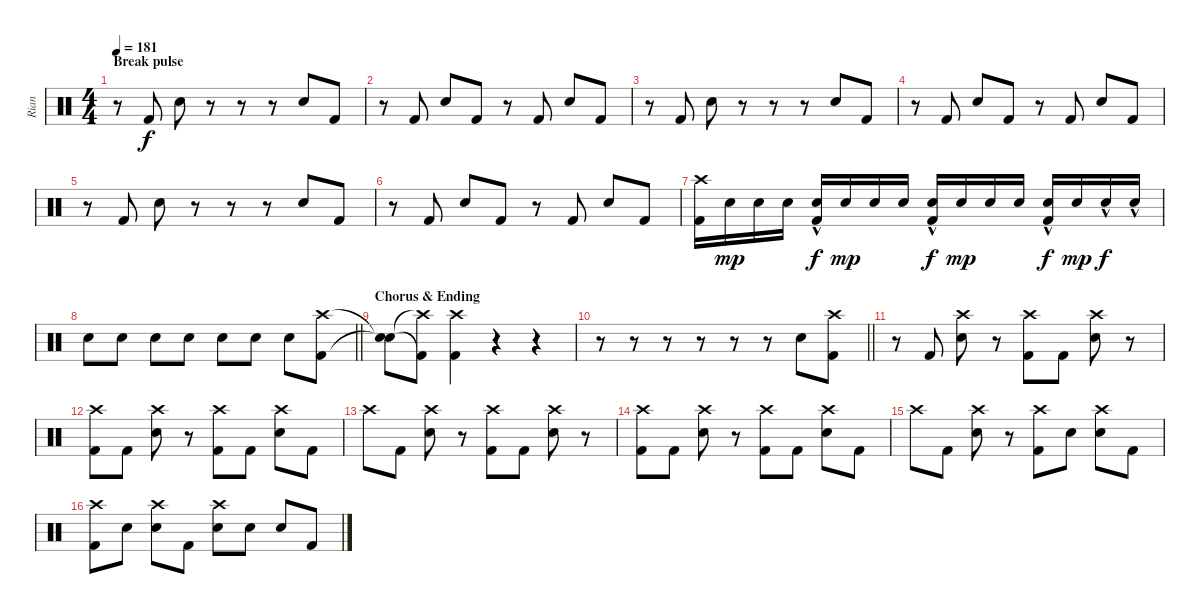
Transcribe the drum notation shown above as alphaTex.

\track ("Rian" "Rian") {instrument percussion bank 255}
\staff {score}
\articulation defaults
\ts (4 4)
\section ("" "Break pulse")
\tempo 181
\clef neutral
\ks c
r.8{dy f} "Kick (hit) 2".8 "Electric Snare (hit)".8 r.8 r.8 r.8 "Electric Snare (hit)".8 "Kick (hit) 2".8 |
r.8 "Kick (hit) 2".8 "Electric Snare (hit)".8 "Kick (hit) 2".8 r.8 "Kick (hit) 2".8 "Electric Snare (hit)".8 "Kick (hit) 2".8 |
r.8 "Kick (hit) 2".8 "Electric Snare (hit)".8 r.8 r.8 r.8 "Electric Snare (hit)".8 "Kick (hit) 2".8 |
r.8 "Kick (hit) 2".8 "Electric Snare (hit)".8 "Kick (hit) 2".8 r.8 "Kick (hit) 2".8 "Electric Snare (hit)".8 "Kick (hit) 2".8 |
r.8 "Kick (hit) 2".8 "Electric Snare (hit)".8 r.8 r.8 r.8 "Electric Snare (hit)".8 "Kick (hit) 2".8 |
r.8 "Kick (hit) 2".8 "Electric Snare (hit)".8 "Kick (hit) 2".8 r.8 "Kick (hit) 2".8 "Electric Snare (hit)".8 "Kick (hit) 2".8 |
("Crash high (hit)" "Kick (hit) 2").16 "Electric Snare (hit)".16{dy mp} "Electric Snare (hit)".16 "Electric Snare (hit)".16 ("Electric Snare (hit)"{hac} "Kick (hit) 2").16{dy f} "Electric Snare (hit)".16{dy mp} "Electric Snare (hit)".16 "Electric Snare (hit)".16 ("Electric Snare (hit)"{hac} "Kick (hit) 2").16{dy f} "Electric Snare (hit)".16{dy mp} "Electric Snare (hit)".16 "Electric Snare (hit)".16 ("Electric Snare (hit)"{hac} "Kick (hit) 2").16{dy f} "Electric Snare (hit)".16{dy mp} "Electric Snare (hit)"{hac}.16{dy f} "Electric Snare (hit)"{hac}.16 |
\barLineRight lightlight "Electric Snare (hit)".8 "Electric Snare (hit)".8 "Electric Snare (hit)".8 "Electric Snare (hit)".8 "Electric Snare (hit)".8 "Electric Snare (hit)".8 "Electric Snare (hit)".8
("Crash high (hit)" "Kick (hit) 2").8 |
\section ("" "Chorus & Ending")
("Snare (hit)"{t} "Snare (hit)"{t}).8 ("Crash high (hit)"{t} "Kick (hit) 2"{t}).8 ("Crash high (hit)" "Kick (hit) 2").4 r.4 r.4 |
\barLineRight lightlight
r.8 r.8 r.8 r.8 r.8 r.8 "Electric Snare (hit)".8 ("Crash high (hit)" "Kick (hit) 2").8 |
r.8 "Kick (hit) 2".8 ("Crash high (hit)" "Electric Snare (hit)").8 r.8 ("Crash high (hit)" "Kick (hit) 2").8 "Kick (hit) 2".8 ("Crash high (hit)" "Electric Snare (hit)").8 r.8 |
("Crash high (hit)" "Kick (hit) 2").8 "Kick (hit) 2".8 ("Crash high (hit)" "Electric Snare (hit)").8 r.8 ("Crash high (hit)" "Kick (hit) 2").8 "Kick (hit) 2".8 ("Crash high (hit)" "Electric Snare (hit)").8 "Kick (hit) 2".8 |
"Crash high (hit)".8 "Kick (hit) 2".8 ("Crash high (hit)" "Electric Snare (hit)").8 r.8 ("Crash high (hit)" "Kick (hit) 2").8 "Kick (hit) 2".8 ("Crash high (hit)" "Electric Snare (hit)").8 r.8 |
("Crash high (hit)" "Kick (hit) 2").8 "Kick (hit) 2".8 ("Crash high (hit)" "Electric Snare (hit)").8 r.8 ("Crash high (hit)" "Kick (hit) 2").8 "Kick (hit) 2".8 ("Crash high (hit)" "Electric Snare (hit)").8 "Kick (hit) 2".8 |
"Crash high (hit)".8 "Kick (hit) 2".8 ("Crash high (hit)" "Electric Snare (hit)").8 r.8 ("Crash high (hit)" "Kick (hit) 2").8 "Electric Snare (hit)".8 ("Crash high (hit)" "Electric Snare (hit)").8 "Kick (hit) 2".8 |
("Crash high (hit)" "Kick (hit) 2").8 "Electric Snare (hit)".8 ("Crash high (hit)" "Electric Snare (hit)").8 "Kick (hit) 2".8 ("Crash high (hit)" "Electric Snare (hit)").8 "Electric Snare (hit)".8 "Electric Snare (hit)".8 "Kick (hit) 2".8
